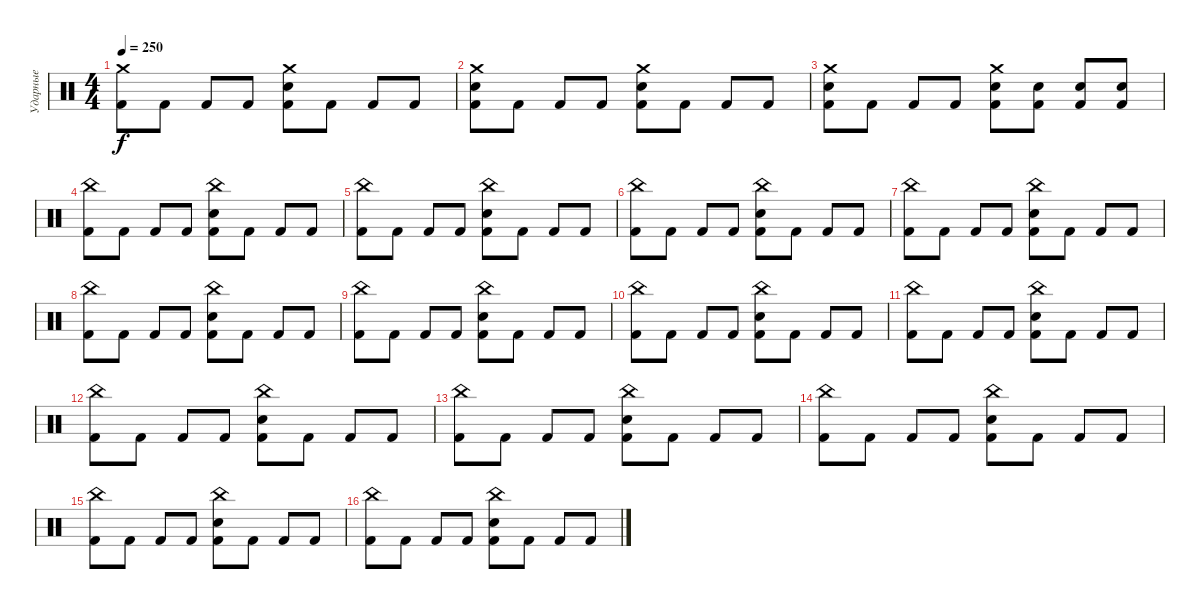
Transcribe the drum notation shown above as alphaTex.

\track ("Ударные" "Ударные") {instrument percussion}
\staff {score}
\articulation defaults
\ts (4 4)
\tempo 250
\clef neutral
\ks c
("Crash medium (hit)" "Kick (hit) 2").8{dy f} "Kick (hit) 2".8 "Kick (hit) 2".8 "Kick (hit) 2".8 ("Crash medium (hit)" "Snare (hit) 2" "Kick (hit) 2").8 "Kick (hit) 2".8 "Kick (hit) 2".8 "Kick (hit) 2".8 |
("Crash medium (hit)" "Snare (hit) 2" "Kick (hit) 2").8 "Kick (hit) 2".8 "Kick (hit) 2".8 "Kick (hit) 2".8 ("Crash medium (hit)" "Snare (hit) 2" "Kick (hit) 2").8 "Kick (hit) 2".8 "Kick (hit) 2".8 "Kick (hit) 2".8 |
("Crash medium (hit)" "Snare (hit) 2" "Kick (hit) 2").8 "Kick (hit) 2".8 "Kick (hit) 2".8 "Kick (hit) 2".8 ("Crash medium (hit)" "Snare (hit) 2" "Kick (hit) 2").8 ("Snare (hit) 2" "Kick (hit) 2").8 ("Snare (hit) 2" "Kick (hit) 2").8 ("Snare (hit) 2" "Kick (hit) 2").8 |
("China (hit)" "Kick (hit) 2").8 "Kick (hit) 2".8 "Kick (hit) 2".8 "Kick (hit) 2".8 ("China (hit)" "Snare (hit) 2" "Kick (hit) 2").8 "Kick (hit) 2".8 "Kick (hit) 2".8 "Kick (hit) 2".8 |
("China (hit)" "Kick (hit) 2").8 "Kick (hit) 2".8 "Kick (hit) 2".8 "Kick (hit) 2".8 ("China (hit)" "Snare (hit) 2" "Kick (hit) 2").8 "Kick (hit) 2".8 "Kick (hit) 2".8 "Kick (hit) 2".8 |
("China (hit)" "Kick (hit) 2").8 "Kick (hit) 2".8 "Kick (hit) 2".8 "Kick (hit) 2".8 ("China (hit)" "Snare (hit) 2" "Kick (hit) 2").8 "Kick (hit) 2".8 "Kick (hit) 2".8 "Kick (hit) 2".8 |
("China (hit)" "Kick (hit) 2").8 "Kick (hit) 2".8 "Kick (hit) 2".8 "Kick (hit) 2".8 ("China (hit)" "Snare (hit) 2" "Kick (hit) 2").8 "Kick (hit) 2".8 "Kick (hit) 2".8 "Kick (hit) 2".8 |
("China (hit)" "Kick (hit) 2").8 "Kick (hit) 2".8 "Kick (hit) 2".8 "Kick (hit) 2".8 ("China (hit)" "Snare (hit) 2" "Kick (hit) 2").8 "Kick (hit) 2".8 "Kick (hit) 2".8 "Kick (hit) 2".8 |
("China (hit)" "Kick (hit) 2").8 "Kick (hit) 2".8 "Kick (hit) 2".8 "Kick (hit) 2".8 ("China (hit)" "Snare (hit) 2" "Kick (hit) 2").8 "Kick (hit) 2".8 "Kick (hit) 2".8 "Kick (hit) 2".8 |
("China (hit)" "Kick (hit) 2").8 "Kick (hit) 2".8 "Kick (hit) 2".8 "Kick (hit) 2".8 ("China (hit)" "Snare (hit) 2" "Kick (hit) 2").8 "Kick (hit) 2".8 "Kick (hit) 2".8 "Kick (hit) 2".8 |
("China (hit)" "Kick (hit) 2").8 "Kick (hit) 2".8 "Kick (hit) 2".8 "Kick (hit) 2".8 ("China (hit)" "Snare (hit) 2" "Kick (hit) 2").8 "Kick (hit) 2".8 "Kick (hit) 2".8 "Kick (hit) 2".8 |
("China (hit)" "Kick (hit) 2").8 "Kick (hit) 2".8 "Kick (hit) 2".8 "Kick (hit) 2".8 ("China (hit)" "Snare (hit) 2" "Kick (hit) 2").8 "Kick (hit) 2".8 "Kick (hit) 2".8 "Kick (hit) 2".8 |
("China (hit)" "Kick (hit) 2").8 "Kick (hit) 2".8 "Kick (hit) 2".8 "Kick (hit) 2".8 ("China (hit)" "Snare (hit) 2" "Kick (hit) 2").8 "Kick (hit) 2".8 "Kick (hit) 2".8 "Kick (hit) 2".8 |
("China (hit)" "Kick (hit) 2").8 "Kick (hit) 2".8 "Kick (hit) 2".8 "Kick (hit) 2".8 ("China (hit)" "Snare (hit) 2" "Kick (hit) 2").8 "Kick (hit) 2".8 "Kick (hit) 2".8 "Kick (hit) 2".8 |
("China (hit)" "Kick (hit) 2").8 "Kick (hit) 2".8 "Kick (hit) 2".8 "Kick (hit) 2".8 ("China (hit)" "Snare (hit) 2" "Kick (hit) 2").8 "Kick (hit) 2".8 "Kick (hit) 2".8 "Kick (hit) 2".8 |
("China (hit)" "Kick (hit) 2").8 "Kick (hit) 2".8 "Kick (hit) 2".8 "Kick (hit) 2".8 ("China (hit)" "Snare (hit) 2" "Kick (hit) 2").8 "Kick (hit) 2".8 "Kick (hit) 2".8 "Kick (hit) 2".8
